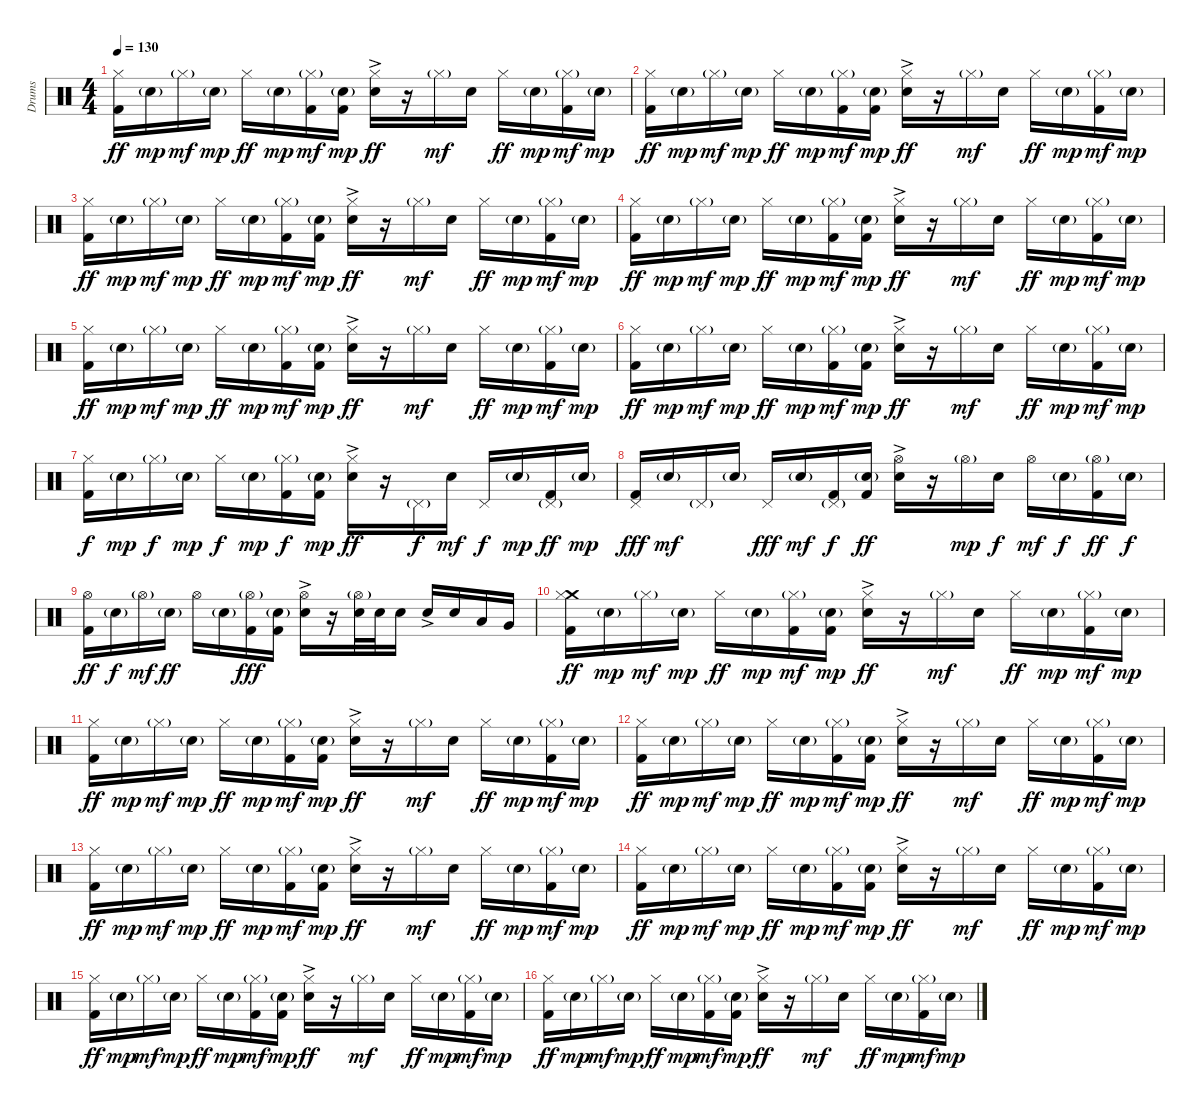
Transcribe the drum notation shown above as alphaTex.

\track ("Drums" "Drums") {instrument percussion}
\staff {score}
\articulation defaults
\ts (4 4)
\tempo 130
\clef neutral
\ks c
("Hi-Hat (closed)" "Kick (hit) 2").16{dy ff} "Electric Snare (hit)"{g}.16{dy mp} "Hi-Hat (closed)"{g}.16{dy mf} "Electric Snare (hit)"{g}.16{dy mp} "Hi-Hat (closed)".16{dy ff} "Electric Snare (hit)"{g}.16{dy mp} ("Hi-Hat (closed)"{g} "Kick (hit) 2").16{dy mf} ("Electric Snare (hit)"{g} "Kick (hit) 2").16{dy mp} ("Hi-Hat (closed)" "Electric Snare (hit)"{ac}).16{dy ff} r.16 "Hi-Hat (closed)"{g}.16{dy mf} "Electric Snare (hit)".16 "Hi-Hat (closed)".16{dy ff} "Electric Snare (hit)"{g}.16{dy mp} ("Hi-Hat (closed)"{g} "Kick (hit) 2").16{dy mf} "Electric Snare (hit)"{g}.16{dy mp} |
("Hi-Hat (closed)" "Kick (hit) 2").16{dy ff} "Electric Snare (hit)"{g}.16{dy mp} "Hi-Hat (closed)"{g}.16{dy mf} "Electric Snare (hit)"{g}.16{dy mp} "Hi-Hat (closed)".16{dy ff} "Electric Snare (hit)"{g}.16{dy mp} ("Hi-Hat (closed)"{g} "Kick (hit) 2").16{dy mf} ("Electric Snare (hit)"{g} "Kick (hit) 2").16{dy mp} ("Hi-Hat (closed)" "Electric Snare (hit)"{ac}).16{dy ff} r.16 "Hi-Hat (closed)"{g}.16{dy mf} "Electric Snare (hit)".16 "Hi-Hat (closed)".16{dy ff} "Electric Snare (hit)"{g}.16{dy mp} ("Hi-Hat (closed)"{g} "Kick (hit) 2").16{dy mf} "Electric Snare (hit)"{g}.16{dy mp} |
("Hi-Hat (closed)" "Kick (hit) 2").16{dy ff} "Electric Snare (hit)"{g}.16{dy mp} "Hi-Hat (closed)"{g}.16{dy mf} "Electric Snare (hit)"{g}.16{dy mp} "Hi-Hat (closed)".16{dy ff} "Electric Snare (hit)"{g}.16{dy mp} ("Hi-Hat (closed)"{g} "Kick (hit) 2").16{dy mf} ("Electric Snare (hit)"{g} "Kick (hit) 2").16{dy mp} ("Hi-Hat (closed)" "Electric Snare (hit)"{ac}).16{dy ff} r.16 "Hi-Hat (closed)"{g}.16{dy mf} "Electric Snare (hit)".16 "Hi-Hat (closed)".16{dy ff} "Electric Snare (hit)"{g}.16{dy mp} ("Hi-Hat (closed)"{g} "Kick (hit) 2").16{dy mf} "Electric Snare (hit)"{g}.16{dy mp} |
("Hi-Hat (closed)" "Kick (hit) 2").16{dy ff} "Electric Snare (hit)"{g}.16{dy mp} "Hi-Hat (closed)"{g}.16{dy mf} "Electric Snare (hit)"{g}.16{dy mp} "Hi-Hat (closed)".16{dy ff} "Electric Snare (hit)"{g}.16{dy mp} ("Hi-Hat (closed)"{g} "Kick (hit) 2").16{dy mf} ("Electric Snare (hit)"{g} "Kick (hit) 2").16{dy mp} ("Hi-Hat (closed)" "Electric Snare (hit)"{ac}).16{dy ff} r.16 "Hi-Hat (closed)"{g}.16{dy mf} "Electric Snare (hit)".16 "Hi-Hat (closed)".16{dy ff} "Electric Snare (hit)"{g}.16{dy mp} ("Hi-Hat (closed)"{g} "Kick (hit) 2").16{dy mf} "Electric Snare (hit)"{g}.16{dy mp} |
("Hi-Hat (closed)" "Kick (hit) 2").16{dy ff} "Electric Snare (hit)"{g}.16{dy mp} "Hi-Hat (closed)"{g}.16{dy mf} "Electric Snare (hit)"{g}.16{dy mp} "Hi-Hat (closed)".16{dy ff} "Electric Snare (hit)"{g}.16{dy mp} ("Hi-Hat (closed)"{g} "Kick (hit) 2").16{dy mf} ("Electric Snare (hit)"{g} "Kick (hit) 2").16{dy mp} ("Hi-Hat (closed)" "Electric Snare (hit)"{ac}).16{dy ff} r.16 "Hi-Hat (closed)"{g}.16{dy mf} "Electric Snare (hit)".16 "Hi-Hat (closed)".16{dy ff} "Electric Snare (hit)"{g}.16{dy mp} ("Hi-Hat (closed)"{g} "Kick (hit) 2").16{dy mf} "Electric Snare (hit)"{g}.16{dy mp} |
("Hi-Hat (closed)" "Kick (hit) 2").16{dy ff} "Electric Snare (hit)"{g}.16{dy mp} "Hi-Hat (closed)"{g}.16{dy mf} "Electric Snare (hit)"{g}.16{dy mp} "Hi-Hat (closed)".16{dy ff} "Electric Snare (hit)"{g}.16{dy mp} ("Hi-Hat (closed)"{g} "Kick (hit) 2").16{dy mf} ("Electric Snare (hit)"{g} "Kick (hit) 2").16{dy mp} ("Hi-Hat (closed)" "Electric Snare (hit)"{ac}).16{dy ff} r.16 "Hi-Hat (closed)"{g}.16{dy mf} "Electric Snare (hit)".16 "Hi-Hat (closed)".16{dy ff} "Electric Snare (hit)"{g}.16{dy mp} ("Hi-Hat (closed)"{g} "Kick (hit) 2").16{dy mf} "Electric Snare (hit)"{g}.16{dy mp} |
("Hi-Hat (closed)" "Kick (hit) 2").16{dy f} "Electric Snare (hit)"{g}.16{dy mp} "Hi-Hat (closed)"{g}.16{dy f} "Electric Snare (hit)"{g}.16{dy mp} "Hi-Hat (closed)".16{dy f} "Electric Snare (hit)"{g}.16{dy mp} ("Hi-Hat (closed)"{g} "Kick (hit) 2").16{dy f} ("Electric Snare (hit)"{g} "Kick (hit) 2").16{dy mp} ("Hi-Hat (closed)" "Electric Snare (hit)"{ac}).16{dy ff} r.16 "Pedal Hi-Hat (hit)"{g}.16{dy f} "Electric Snare (hit)".16{dy mf} "Pedal Hi-Hat (hit)".16{dy f} "Electric Snare (hit)"{g}.16{dy mp} ("Pedal Hi-Hat (hit)"{g} "Kick (hit) 2").16{dy ff} "Electric Snare (hit)"{g}.16{dy mp} |
("Pedal Hi-Hat (hit)" "Kick (hit) 2").16{dy fff} "Electric Snare (hit)"{g}.16{dy mf} "Pedal Hi-Hat (hit)"{g}.16 "Electric Snare (hit)"{g}.16 "Pedal Hi-Hat (hit)".16{dy fff} "Electric Snare (hit)"{g}.16{dy mf} ("Pedal Hi-Hat (hit)"{g} "Kick (hit) 2").16{dy f} ("Electric Snare (hit)"{g} "Kick (hit) 2").16{dy ff} ("Hi-Hat (open)" "Electric Snare (hit)"{ac}).16 r.16 "Hi-Hat (open)"{g}.16{dy mp} "Electric Snare (hit)".16{dy f} "Hi-Hat (open)".16{dy mf} "Electric Snare (hit)"{g}.16{dy f} ("Hi-Hat (open)"{g} "Kick (hit) 2").16{dy ff} "Electric Snare (hit)"{g}.16{dy f} |
("Hi-Hat (open)" "Kick (hit) 2").16{dy ff} "Electric Snare (hit)"{g}.16{dy f} "Hi-Hat (open)"{g}.16{dy mf} "Electric Snare (hit)"{g}.16{dy ff} "Hi-Hat (open)".16 "Electric Snare (hit)"{g}.16 ("Hi-Hat (open)"{g} "Kick (hit) 2").16{dy fff} ("Electric Snare (hit)"{g} "Kick (hit) 2").16 ("Hi-Hat (open)" "Electric Snare (hit)"{ac}).16 r.16 ("Hi-Hat (open)"{g} "Electric Snare (hit)").32 "Electric Snare (hit)".32 "Electric Snare (hit)".16 "Electric Snare (hit)"{ac}.16 "Electric Snare (hit)".16 "Low Tom (hit)".16 "Very Low Tom (hit)".16 |
("Crash medium (hit)" "Hi-Hat (closed)" "Kick (hit) 2").16{dy ff} "Electric Snare (hit)"{g}.16{dy mp} "Hi-Hat (closed)"{g}.16{dy mf} "Electric Snare (hit)"{g}.16{dy mp} "Hi-Hat (closed)".16{dy ff} "Electric Snare (hit)"{g}.16{dy mp} ("Hi-Hat (closed)"{g} "Kick (hit) 2").16{dy mf} ("Electric Snare (hit)"{g} "Kick (hit) 2").16{dy mp} ("Hi-Hat (closed)" "Electric Snare (hit)"{ac}).16{dy ff} r.16 "Hi-Hat (closed)"{g}.16{dy mf} "Electric Snare (hit)".16 "Hi-Hat (closed)".16{dy ff} "Electric Snare (hit)"{g}.16{dy mp} ("Hi-Hat (closed)"{g} "Kick (hit) 2").16{dy mf} "Electric Snare (hit)"{g}.16{dy mp} |
("Hi-Hat (closed)" "Kick (hit) 2").16{dy ff} "Electric Snare (hit)"{g}.16{dy mp} "Hi-Hat (closed)"{g}.16{dy mf} "Electric Snare (hit)"{g}.16{dy mp} "Hi-Hat (closed)".16{dy ff} "Electric Snare (hit)"{g}.16{dy mp} ("Hi-Hat (closed)"{g} "Kick (hit) 2").16{dy mf} ("Electric Snare (hit)"{g} "Kick (hit) 2").16{dy mp} ("Hi-Hat (closed)" "Electric Snare (hit)"{ac}).16{dy ff} r.16 "Hi-Hat (closed)"{g}.16{dy mf} "Electric Snare (hit)".16 "Hi-Hat (closed)".16{dy ff} "Electric Snare (hit)"{g}.16{dy mp} ("Hi-Hat (closed)"{g} "Kick (hit) 2").16{dy mf} "Electric Snare (hit)"{g}.16{dy mp} |
("Hi-Hat (closed)" "Kick (hit) 2").16{dy ff} "Electric Snare (hit)"{g}.16{dy mp} "Hi-Hat (closed)"{g}.16{dy mf} "Electric Snare (hit)"{g}.16{dy mp} "Hi-Hat (closed)".16{dy ff} "Electric Snare (hit)"{g}.16{dy mp} ("Hi-Hat (closed)"{g} "Kick (hit) 2").16{dy mf} ("Electric Snare (hit)"{g} "Kick (hit) 2").16{dy mp} ("Hi-Hat (closed)" "Electric Snare (hit)"{ac}).16{dy ff} r.16 "Hi-Hat (closed)"{g}.16{dy mf} "Electric Snare (hit)".16 "Hi-Hat (closed)".16{dy ff} "Electric Snare (hit)"{g}.16{dy mp} ("Hi-Hat (closed)"{g} "Kick (hit) 2").16{dy mf} "Electric Snare (hit)"{g}.16{dy mp} |
("Hi-Hat (closed)" "Kick (hit) 2").16{dy ff} "Electric Snare (hit)"{g}.16{dy mp} "Hi-Hat (closed)"{g}.16{dy mf} "Electric Snare (hit)"{g}.16{dy mp} "Hi-Hat (closed)".16{dy ff} "Electric Snare (hit)"{g}.16{dy mp} ("Hi-Hat (closed)"{g} "Kick (hit) 2").16{dy mf} ("Electric Snare (hit)"{g} "Kick (hit) 2").16{dy mp} ("Hi-Hat (closed)" "Electric Snare (hit)"{ac}).16{dy ff} r.16 "Hi-Hat (closed)"{g}.16{dy mf} "Electric Snare (hit)".16 "Hi-Hat (closed)".16{dy ff} "Electric Snare (hit)"{g}.16{dy mp} ("Hi-Hat (closed)"{g} "Kick (hit) 2").16{dy mf} "Electric Snare (hit)"{g}.16{dy mp} |
("Hi-Hat (closed)" "Kick (hit) 2").16{dy ff} "Electric Snare (hit)"{g}.16{dy mp} "Hi-Hat (closed)"{g}.16{dy mf} "Electric Snare (hit)"{g}.16{dy mp} "Hi-Hat (closed)".16{dy ff} "Electric Snare (hit)"{g}.16{dy mp} ("Hi-Hat (closed)"{g} "Kick (hit) 2").16{dy mf} ("Electric Snare (hit)"{g} "Kick (hit) 2").16{dy mp} ("Hi-Hat (closed)" "Electric Snare (hit)"{ac}).16{dy ff} r.16 "Hi-Hat (closed)"{g}.16{dy mf} "Electric Snare (hit)".16 "Hi-Hat (closed)".16{dy ff} "Electric Snare (hit)"{g}.16{dy mp} ("Hi-Hat (closed)"{g} "Kick (hit) 2").16{dy mf} "Electric Snare (hit)"{g}.16{dy mp} |
("Hi-Hat (closed)" "Kick (hit) 2").16{dy ff} "Electric Snare (hit)"{g}.16{dy mp} "Hi-Hat (closed)"{g}.16{dy mf} "Electric Snare (hit)"{g}.16{dy mp} "Hi-Hat (closed)".16{dy ff} "Electric Snare (hit)"{g}.16{dy mp} ("Hi-Hat (closed)"{g} "Kick (hit) 2").16{dy mf} ("Electric Snare (hit)"{g} "Kick (hit) 2").16{dy mp} ("Hi-Hat (closed)" "Electric Snare (hit)"{ac}).16{dy ff} r.16 "Hi-Hat (closed)"{g}.16{dy mf} "Electric Snare (hit)".16 "Hi-Hat (closed)".16{dy ff} "Electric Snare (hit)"{g}.16{dy mp} ("Hi-Hat (closed)"{g} "Kick (hit) 2").16{dy mf} "Electric Snare (hit)"{g}.16{dy mp} |
("Hi-Hat (closed)" "Kick (hit) 2").16{dy ff} "Electric Snare (hit)"{g}.16{dy mp} "Hi-Hat (closed)"{g}.16{dy mf} "Electric Snare (hit)"{g}.16{dy mp} "Hi-Hat (closed)".16{dy ff} "Electric Snare (hit)"{g}.16{dy mp} ("Hi-Hat (closed)"{g} "Kick (hit) 2").16{dy mf} ("Electric Snare (hit)"{g} "Kick (hit) 2").16{dy mp} ("Hi-Hat (closed)" "Electric Snare (hit)"{ac}).16{dy ff} r.16 "Hi-Hat (closed)"{g}.16{dy mf} "Electric Snare (hit)".16 "Hi-Hat (closed)".16{dy ff} "Electric Snare (hit)"{g}.16{dy mp} ("Hi-Hat (closed)"{g} "Kick (hit) 2").16{dy mf} "Electric Snare (hit)"{g}.16{dy mp}
